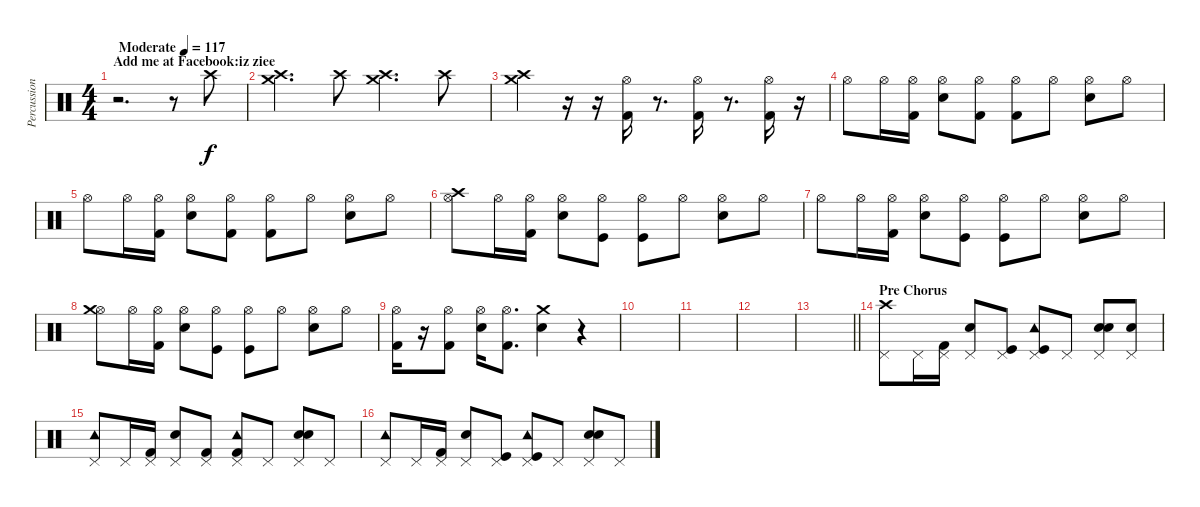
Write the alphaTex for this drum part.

\track ("Percussion" "Percussion") {instrument percussion}
\staff {score}
\articulation defaults
\ts (4 4)
\section ("" "Add me at Facebook:iz ziee ")
\tempo (117 "Moderate")
\clef neutral
\ks c
r.2{d dy f} r.8 "Crash high (hit)".8 |
("Crash medium (hit)" "Crash high (hit)").4{d} "Crash high (hit)".8 ("Crash medium (hit)" "Crash high (hit)").4{d} "Crash high (hit)".8 |
("Crash medium (hit)" "Crash high (hit)").4 r.16 r.16 ("Hi-Hat (open)" "Kick (hit) 2").16 r.8{d} ("Hi-Hat (open)" "Kick (hit) 2").16 r.8{d} ("Hi-Hat (open)" "Kick (hit) 2").16 r.16 |
"Hi-Hat (open)".8 "Hi-Hat (open)".16 ("Hi-Hat (open)" "Kick (hit) 2").16 ("Hi-Hat (open)" "Snare (hit) 2").8 ("Hi-Hat (open)" "Kick (hit) 2").8 ("Hi-Hat (open)" "Kick (hit) 2").8 "Hi-Hat (open)".8 ("Hi-Hat (open)" "Snare (hit) 2").8 "Hi-Hat (open)".8 |
"Hi-Hat (open)".8 "Hi-Hat (open)".16 ("Hi-Hat (open)" "Kick (hit) 2").16 ("Hi-Hat (open)" "Snare (hit) 2").8 ("Hi-Hat (open)" "Kick (hit) 2").8 ("Hi-Hat (open)" "Kick (hit) 2").8 "Hi-Hat (open)".8 ("Hi-Hat (open)" "Electric Snare (hit)").8 "Hi-Hat (open)".8 |
("Hi-Hat (open)" "Crash high (hit)").8 "Hi-Hat (open)".16 ("Hi-Hat (open)" "Kick (hit) 2").16 ("Hi-Hat (open)" "Snare (hit) 2").8 ("Hi-Hat (open)" "Kick (hit)").8 ("Hi-Hat (open)" "Kick (hit)").8 "Hi-Hat (open)".8 ("Hi-Hat (open)" "Electric Snare (hit)").8 "Hi-Hat (open)".8 |
"Hi-Hat (open)".8 "Hi-Hat (open)".16 ("Hi-Hat (open)" "Kick (hit) 2").16 ("Hi-Hat (open)" "Snare (hit) 2").8 ("Hi-Hat (open)" "Kick (hit)").8 ("Hi-Hat (open)" "Kick (hit)").8 "Hi-Hat (open)".8 ("Hi-Hat (open)" "Electric Snare (hit)").8 "Hi-Hat (open)".8 |
("Hi-Hat (open)" "Crash medium (hit)").8 "Hi-Hat (open)".16 ("Hi-Hat (open)" "Kick (hit) 2").16 ("Hi-Hat (open)" "Electric Snare (hit)").8 ("Hi-Hat (open)" "Kick (hit)").8 ("Hi-Hat (open)" "Kick (hit)").8 "Hi-Hat (open)".8 ("Hi-Hat (open)" "Electric Snare (hit)").8 "Hi-Hat (open)".8 |
("Hi-Hat (open)" "Kick (hit) 2").16 r.16 ("Hi-Hat (open)" "Kick (hit) 2").8 ("Hi-Hat (open)" "Electric Snare (hit)").16 ("Hi-Hat (open)" "Kick (hit) 2").8{d} ("Crash medium (hit)" "Electric Snare (hit)").4 r.4 |
|
|
|
\barLineRight lightlight
|
\section ("" "Pre Chorus")
("Pedal Hi-Hat (hit)" "Crash high (hit)").8 "Pedal Hi-Hat (hit)".16 ("Pedal Hi-Hat (hit)" "Kick (hit) 2").16 ("Pedal Hi-Hat (hit)" "Electric Snare (hit)").8 ("Pedal Hi-Hat (hit)" "Kick (hit)").8 ("Pedal Hi-Hat (hit)" "Kick (hit)" "Tambourine (hit)").8 "Pedal Hi-Hat (hit)".8 ("Pedal Hi-Hat (hit)" "Electric Snare (hit)" "Snare (hit) 2").8 ("Pedal Hi-Hat (hit)" "Snare (hit)").8 |
("Pedal Hi-Hat (hit)" "Tambourine (hit)").8 "Pedal Hi-Hat (hit)".16 ("Pedal Hi-Hat (hit)" "Kick (hit) 2").16 ("Pedal Hi-Hat (hit)" "Electric Snare (hit)").8 ("Pedal Hi-Hat (hit)" "Kick (hit) 2").8 ("Pedal Hi-Hat (hit)" "Kick (hit) 2" "Tambourine (hit)").8 "Pedal Hi-Hat (hit)".8 ("Pedal Hi-Hat (hit)" "Electric Snare (hit)" "Snare (hit) 2").8 "Pedal Hi-Hat (hit)".8 |
("Pedal Hi-Hat (hit)" "Tambourine (hit)").8 "Pedal Hi-Hat (hit)".16 ("Pedal Hi-Hat (hit)" "Kick (hit) 2").16 ("Pedal Hi-Hat (hit)" "Electric Snare (hit)").8 ("Pedal Hi-Hat (hit)" "Kick (hit)").8 ("Pedal Hi-Hat (hit)" "Kick (hit)" "Tambourine (hit)").8 "Pedal Hi-Hat (hit)".8 ("Pedal Hi-Hat (hit)" "Electric Snare (hit)" "Snare (hit) 2").8 "Pedal Hi-Hat (hit)".8
